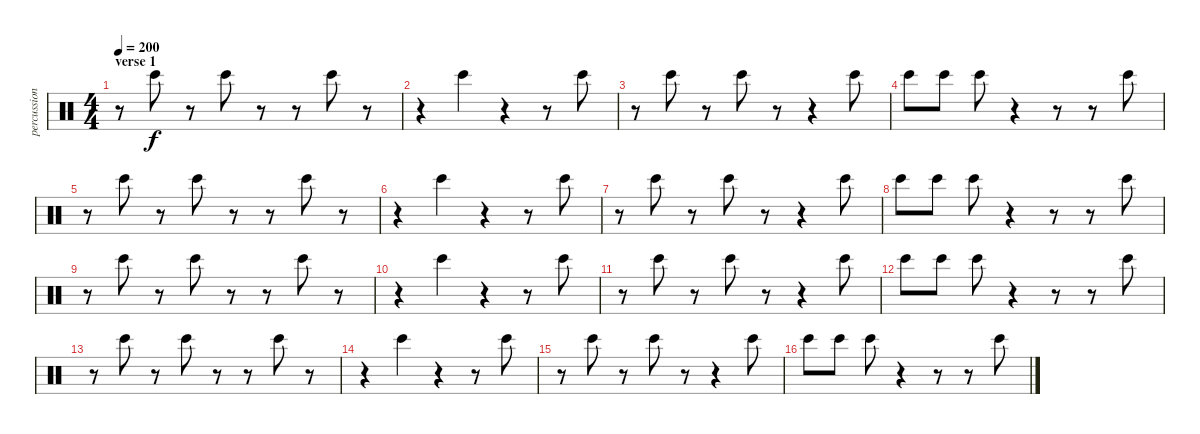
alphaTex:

\track ("percussion" "percussion") {instrument percussion}
\staff {score}
\articulation defaults
\ts (4 4)
\section ("" "verse 1")
\tempo 200
\clef neutral
\ks c
r.8{dy f} "Bongo High (hit)".8 r.8 "Bongo High (hit)".8 r.8 r.8 "Bongo High (hit)".8 r.8 |
r.4 "Bongo High (hit)".4 r.4 r.8 "Bongo High (hit)".8 |
r.8 "Bongo High (hit)".8 r.8 "Bongo High (hit)".8 r.8 r.4 "Bongo High (hit)".8 |
"Bongo High (hit)".8 "Bongo High (hit)".8 "Bongo High (hit)".8 r.4 r.8 r.8 "Bongo High (hit)".8 |
r.8 "Bongo High (hit)".8 r.8 "Bongo High (hit)".8 r.8 r.8 "Bongo High (hit)".8 r.8 |
r.4 "Bongo High (hit)".4 r.4 r.8 "Bongo High (hit)".8 |
r.8 "Bongo High (hit)".8 r.8 "Bongo High (hit)".8 r.8 r.4 "Bongo High (hit)".8 |
"Bongo High (hit)".8 "Bongo High (hit)".8 "Bongo High (hit)".8 r.4 r.8 r.8 "Bongo High (hit)".8 |
r.8 "Bongo High (hit)".8 r.8 "Bongo High (hit)".8 r.8 r.8 "Bongo High (hit)".8 r.8 |
r.4 "Bongo High (hit)".4 r.4 r.8 "Bongo High (hit)".8 |
r.8 "Bongo High (hit)".8 r.8 "Bongo High (hit)".8 r.8 r.4 "Bongo High (hit)".8 |
"Bongo High (hit)".8 "Bongo High (hit)".8 "Bongo High (hit)".8 r.4 r.8 r.8 "Bongo High (hit)".8 |
r.8 "Bongo High (hit)".8 r.8 "Bongo High (hit)".8 r.8 r.8 "Bongo High (hit)".8 r.8 |
r.4 "Bongo High (hit)".4 r.4 r.8 "Bongo High (hit)".8 |
r.8 "Bongo High (hit)".8 r.8 "Bongo High (hit)".8 r.8 r.4 "Bongo High (hit)".8 |
"Bongo High (hit)".8 "Bongo High (hit)".8 "Bongo High (hit)".8 r.4 r.8 r.8 "Bongo High (hit)".8
